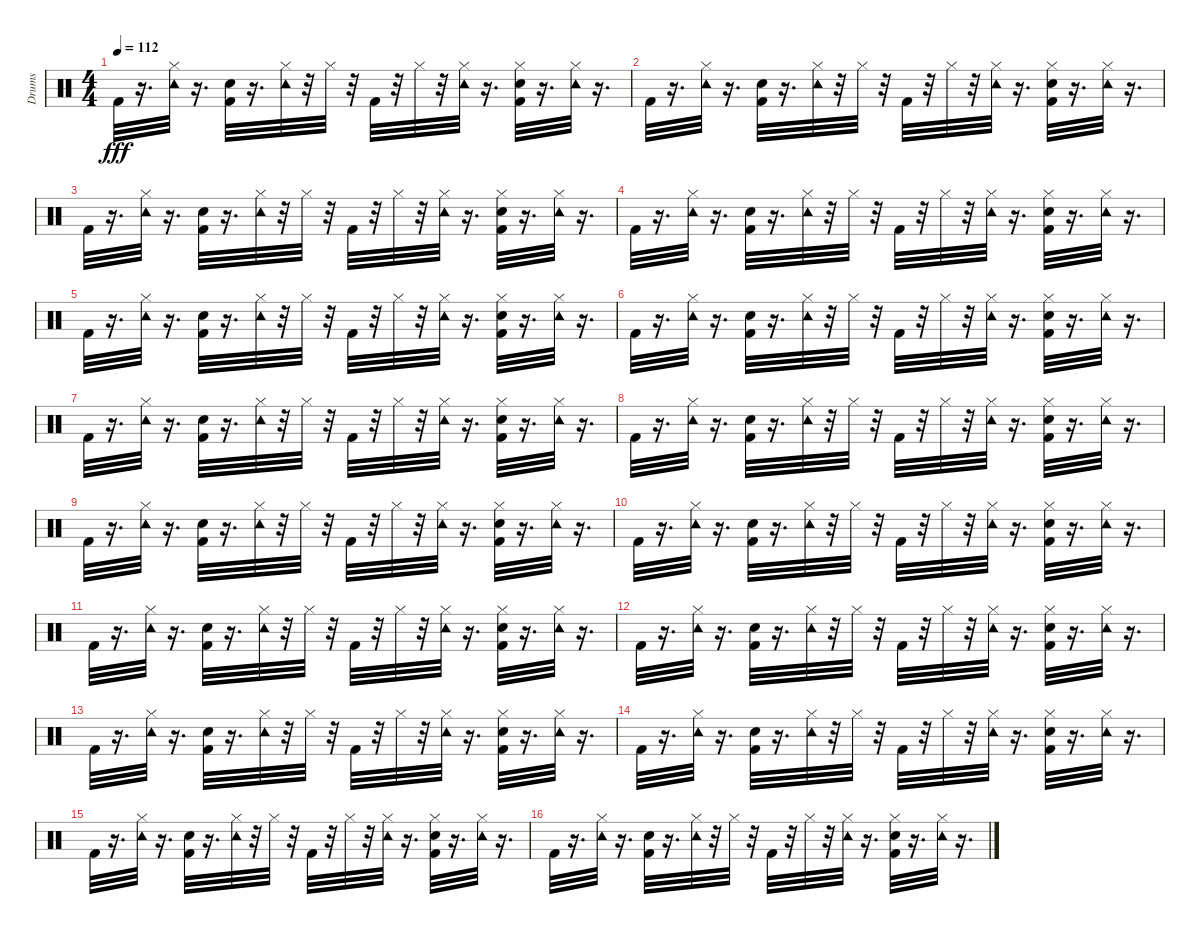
\track ("Drums" "Drums") {instrument percussion}
\staff {score}
\articulation defaults
\ts (4 4)
\tempo 112
\clef neutral
\ks c "Kick (hit) 2".32{dy fff}
r.16{d} ("Tambourine (hit)" "Hi-Hat (closed)").32 r.16{d} ("Snare (hit) 2" "Kick (hit) 2").32 r.16{d} ("Tambourine (hit)" "Hi-Hat (closed)").32 r.32 "Hi-Hat (closed)".32 r.32 "Kick (hit) 2".32 r.32 "Hi-Hat (closed)".32 r.32 ("Tambourine (hit)" "Hi-Hat (closed)").32 r.16{d} ("Snare (hit) 2" "Hi-Hat (closed)" "Kick (hit) 2").32 r.16{d} ("Tambourine (hit)" "Hi-Hat (closed)").32 r.16{d} |
"Kick (hit) 2".32 r.16{d} ("Tambourine (hit)" "Hi-Hat (closed)").32 r.16{d} ("Snare (hit) 2" "Kick (hit) 2").32 r.16{d} ("Tambourine (hit)" "Hi-Hat (closed)").32 r.32 "Hi-Hat (closed)".32 r.32 "Kick (hit) 2".32 r.32 "Hi-Hat (closed)".32 r.32 ("Tambourine (hit)" "Hi-Hat (closed)").32 r.16{d} ("Snare (hit) 2" "Hi-Hat (closed)" "Kick (hit) 2").32 r.16{d} ("Tambourine (hit)" "Hi-Hat (closed)").32 r.16{d} |
"Kick (hit) 2".32{volume 16} r.16{d} ("Tambourine (hit)" "Hi-Hat (closed)").32 r.16{d} ("Snare (hit) 2" "Kick (hit) 2").32 r.16{d} ("Tambourine (hit)" "Hi-Hat (closed)").32 r.32 "Hi-Hat (closed)".32 r.32 "Kick (hit) 2".32 r.32 "Hi-Hat (closed)".32 r.32 ("Tambourine (hit)" "Hi-Hat (closed)").32 r.16{d} ("Snare (hit) 2" "Hi-Hat (closed)" "Kick (hit) 2").32 r.16{d} ("Tambourine (hit)" "Hi-Hat (closed)").32 r.16{d} |
"Kick (hit) 2".32 r.16{d} ("Tambourine (hit)" "Hi-Hat (closed)").32 r.16{d} ("Snare (hit) 2" "Kick (hit) 2").32 r.16{d} ("Tambourine (hit)" "Hi-Hat (closed)").32 r.32 "Hi-Hat (closed)".32 r.32 "Kick (hit) 2".32 r.32 "Hi-Hat (closed)".32 r.32 ("Tambourine (hit)" "Hi-Hat (closed)").32 r.16{d} ("Snare (hit) 2" "Hi-Hat (closed)" "Kick (hit) 2").32 r.16{d} ("Tambourine (hit)" "Hi-Hat (closed)").32 r.16{d} |
"Kick (hit) 2".32 r.16{d} ("Tambourine (hit)" "Hi-Hat (closed)").32 r.16{d} ("Snare (hit) 2" "Kick (hit) 2").32 r.16{d} ("Tambourine (hit)" "Hi-Hat (closed)").32 r.32 "Hi-Hat (closed)".32 r.32 "Kick (hit) 2".32 r.32 "Hi-Hat (closed)".32 r.32 ("Tambourine (hit)" "Hi-Hat (closed)").32 r.16{d} ("Snare (hit) 2" "Hi-Hat (closed)" "Kick (hit) 2").32 r.16{d} ("Tambourine (hit)" "Hi-Hat (closed)").32 r.16{d} |
"Kick (hit) 2".32 r.16{d} ("Tambourine (hit)" "Hi-Hat (closed)").32 r.16{d} ("Snare (hit) 2" "Kick (hit) 2").32 r.16{d} ("Tambourine (hit)" "Hi-Hat (closed)").32 r.32 "Hi-Hat (closed)".32 r.32 "Kick (hit) 2".32 r.32 "Hi-Hat (closed)".32 r.32 ("Tambourine (hit)" "Hi-Hat (closed)").32 r.16{d} ("Snare (hit) 2" "Hi-Hat (closed)" "Kick (hit) 2").32 r.16{d} ("Tambourine (hit)" "Hi-Hat (closed)").32 r.16{d} |
"Kick (hit) 2".32 r.16{d} ("Tambourine (hit)" "Hi-Hat (closed)").32 r.16{d} ("Snare (hit) 2" "Kick (hit) 2").32 r.16{d} ("Tambourine (hit)" "Hi-Hat (closed)").32 r.32 "Hi-Hat (closed)".32 r.32 "Kick (hit) 2".32 r.32 "Hi-Hat (closed)".32 r.32 ("Tambourine (hit)" "Hi-Hat (closed)").32 r.16{d} ("Snare (hit) 2" "Hi-Hat (closed)" "Kick (hit) 2").32 r.16{d} ("Tambourine (hit)" "Hi-Hat (closed)").32 r.16{d} |
"Kick (hit) 2".32 r.16{d} ("Tambourine (hit)" "Hi-Hat (closed)").32 r.16{d} ("Snare (hit) 2" "Kick (hit) 2").32 r.16{d} ("Tambourine (hit)" "Hi-Hat (closed)").32 r.32 "Hi-Hat (closed)".32 r.32 "Kick (hit) 2".32 r.32 "Hi-Hat (closed)".32 r.32 ("Tambourine (hit)" "Hi-Hat (closed)").32 r.16{d} ("Snare (hit) 2" "Hi-Hat (closed)" "Kick (hit) 2").32 r.16{d} ("Tambourine (hit)" "Hi-Hat (closed)").32 r.16{d} |
"Kick (hit) 2".32 r.16{d} ("Tambourine (hit)" "Hi-Hat (closed)").32 r.16{d} ("Snare (hit) 2" "Kick (hit) 2").32 r.16{d} ("Tambourine (hit)" "Hi-Hat (closed)").32 r.32 "Hi-Hat (closed)".32 r.32 "Kick (hit) 2".32 r.32 "Hi-Hat (closed)".32 r.32 ("Tambourine (hit)" "Hi-Hat (closed)").32 r.16{d} ("Snare (hit) 2" "Hi-Hat (closed)" "Kick (hit) 2").32 r.16{d} ("Tambourine (hit)" "Hi-Hat (closed)").32 r.16{d} |
"Kick (hit) 2".32 r.16{d} ("Tambourine (hit)" "Hi-Hat (closed)").32 r.16{d} ("Snare (hit) 2" "Kick (hit) 2").32 r.16{d} ("Tambourine (hit)" "Hi-Hat (closed)").32 r.32 "Hi-Hat (closed)".32 r.32 "Kick (hit) 2".32 r.32 "Hi-Hat (closed)".32 r.32 ("Tambourine (hit)" "Hi-Hat (closed)").32 r.16{d} ("Snare (hit) 2" "Hi-Hat (closed)" "Kick (hit) 2").32 r.16{d} ("Tambourine (hit)" "Hi-Hat (closed)").32 r.16{d} |
"Kick (hit) 2".32 r.16{d} ("Tambourine (hit)" "Hi-Hat (closed)").32 r.16{d} ("Snare (hit) 2" "Kick (hit) 2").32 r.16{d} ("Tambourine (hit)" "Hi-Hat (closed)").32 r.32 "Hi-Hat (closed)".32 r.32 "Kick (hit) 2".32 r.32 "Hi-Hat (closed)".32 r.32 ("Tambourine (hit)" "Hi-Hat (closed)").32 r.16{d} ("Snare (hit) 2" "Hi-Hat (closed)" "Kick (hit) 2").32 r.16{d} ("Tambourine (hit)" "Hi-Hat (closed)").32 r.16{d} |
"Kick (hit) 2".32 r.16{d} ("Tambourine (hit)" "Hi-Hat (closed)").32 r.16{d} ("Snare (hit) 2" "Kick (hit) 2").32 r.16{d} ("Tambourine (hit)" "Hi-Hat (closed)").32 r.32 "Hi-Hat (closed)".32 r.32 "Kick (hit) 2".32 r.32 "Hi-Hat (closed)".32 r.32 ("Tambourine (hit)" "Hi-Hat (closed)").32 r.16{d} ("Snare (hit) 2" "Hi-Hat (closed)" "Kick (hit) 2").32 r.16{d} ("Tambourine (hit)" "Hi-Hat (closed)").32 r.16{d} |
"Kick (hit) 2".32 r.16{d} ("Tambourine (hit)" "Hi-Hat (closed)").32 r.16{d} ("Snare (hit) 2" "Kick (hit) 2").32 r.16{d} ("Tambourine (hit)" "Hi-Hat (closed)").32 r.32 "Hi-Hat (closed)".32 r.32 "Kick (hit) 2".32 r.32 "Hi-Hat (closed)".32 r.32 ("Tambourine (hit)" "Hi-Hat (closed)").32 r.16{d} ("Snare (hit) 2" "Hi-Hat (closed)" "Kick (hit) 2").32 r.16{d} ("Tambourine (hit)" "Hi-Hat (closed)").32 r.16{d} |
"Kick (hit) 2".32 r.16{d} ("Tambourine (hit)" "Hi-Hat (closed)").32 r.16{d} ("Snare (hit) 2" "Kick (hit) 2").32 r.16{d} ("Tambourine (hit)" "Hi-Hat (closed)").32 r.32 "Hi-Hat (closed)".32 r.32 "Kick (hit) 2".32 r.32 "Hi-Hat (closed)".32 r.32 ("Tambourine (hit)" "Hi-Hat (closed)").32 r.16{d} ("Snare (hit) 2" "Hi-Hat (closed)" "Kick (hit) 2").32 r.16{d} ("Tambourine (hit)" "Hi-Hat (closed)").32 r.16{d} |
"Kick (hit) 2".32 r.16{d} ("Tambourine (hit)" "Hi-Hat (closed)").32 r.16{d} ("Snare (hit) 2" "Kick (hit) 2").32 r.16{d} ("Tambourine (hit)" "Hi-Hat (closed)").32 r.32 "Hi-Hat (closed)".32 r.32 "Kick (hit) 2".32 r.32 "Hi-Hat (closed)".32 r.32 ("Tambourine (hit)" "Hi-Hat (closed)").32 r.16{d} ("Snare (hit) 2" "Hi-Hat (closed)" "Kick (hit) 2").32 r.16{d} ("Tambourine (hit)" "Hi-Hat (closed)").32 r.16{d} |
"Kick (hit) 2".32 r.16{d} ("Tambourine (hit)" "Hi-Hat (closed)").32 r.16{d} ("Snare (hit) 2" "Kick (hit) 2").32 r.16{d} ("Tambourine (hit)" "Hi-Hat (closed)").32 r.32 "Hi-Hat (closed)".32 r.32 "Kick (hit) 2".32 r.32 "Hi-Hat (closed)".32 r.32 ("Tambourine (hit)" "Hi-Hat (closed)").32 r.16{d} ("Snare (hit) 2" "Hi-Hat (closed)" "Kick (hit) 2").32 r.16{d} ("Tambourine (hit)" "Hi-Hat (closed)").32 r.16{d}
